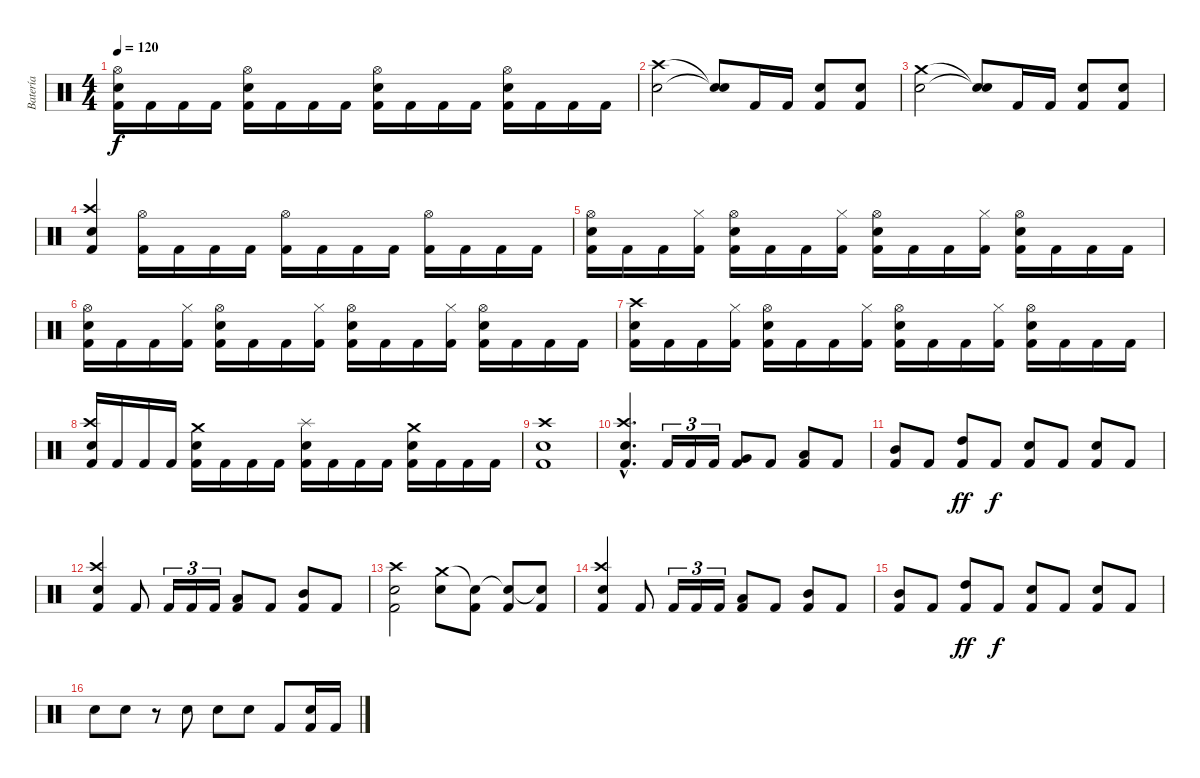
\track ("Batería" "Batería") {instrument percussion}
\staff {score}
\articulation defaults
\ts (4 4)
\tempo 120
\clef neutral
\ks c
("Hi-Hat (open)" "Electric Snare (hit)" "Kick (hit) 2").16{dy f} "Kick (hit) 2".16 "Kick (hit) 2".16 "Kick (hit) 2".16 ("Hi-Hat (open)" "Electric Snare (hit)" "Kick (hit) 2").16 "Kick (hit) 2".16 "Kick (hit) 2".16 "Kick (hit) 2".16 ("Hi-Hat (open)" "Electric Snare (hit)" "Kick (hit) 2").16 "Kick (hit) 2".16 "Kick (hit) 2".16 "Kick (hit) 2".16 ("Hi-Hat (open)" "Electric Snare (hit)" "Kick (hit) 2").16 "Kick (hit) 2".16 "Kick (hit) 2".16 "Kick (hit) 2".16 |
("Crash high (hit)" "Snare (hit) 2").2 ("Snare (hit)"{t} "Snare (hit)"{t}).8 "Kick (hit) 2".16 "Kick (hit) 2".16 ("Electric Snare (hit)" "Kick (hit) 2").8 ("Snare (hit) 2" "Kick (hit) 2").8 |
("Crash medium (hit)" "Snare (hit) 2").2 ("Snare (hit)"{t} "Snare (hit)"{t}).8 "Kick (hit) 2".16 "Kick (hit) 2".16 ("Electric Snare (hit)" "Kick (hit) 2").8 ("Snare (hit) 2" "Kick (hit) 2").8 |
("Crash high (hit)" "Snare (hit) 2" "Kick (hit) 2").4 ("Hi-Hat (open)" "Kick (hit) 2").16 "Kick (hit) 2".16 "Kick (hit) 2".16 "Kick (hit) 2".16 ("Hi-Hat (open)" "Kick (hit) 2").16 "Kick (hit) 2".16 "Kick (hit) 2".16 "Kick (hit) 2".16 ("Hi-Hat (open)" "Kick (hit) 2").16 "Kick (hit) 2".16 "Kick (hit) 2".16 "Kick (hit) 2".16 |
("Hi-Hat (open)" "Electric Snare (hit)" "Kick (hit) 2").16 "Kick (hit) 2".16 "Kick (hit) 2".16 ("Hi-Hat (closed)" "Kick (hit) 2").16 ("Hi-Hat (open)" "Electric Snare (hit)" "Kick (hit) 2").16 "Kick (hit) 2".16 "Kick (hit) 2".16 ("Hi-Hat (closed)" "Kick (hit) 2").16 ("Hi-Hat (open)" "Electric Snare (hit)" "Kick (hit) 2").16 "Kick (hit) 2".16 "Kick (hit) 2".16 ("Hi-Hat (closed)" "Kick (hit) 2").16 ("Hi-Hat (open)" "Electric Snare (hit)" "Kick (hit) 2").16 "Kick (hit) 2".16 "Kick (hit) 2".16 "Kick (hit) 2".16 |
("Hi-Hat (open)" "Electric Snare (hit)" "Kick (hit) 2").16 "Kick (hit) 2".16 "Kick (hit) 2".16 ("Hi-Hat (closed)" "Kick (hit) 2").16 ("Hi-Hat (open)" "Electric Snare (hit)" "Kick (hit) 2").16 "Kick (hit) 2".16 "Kick (hit) 2".16 ("Hi-Hat (closed)" "Kick (hit) 2").16 ("Hi-Hat (open)" "Electric Snare (hit)" "Kick (hit) 2").16 "Kick (hit) 2".16 "Kick (hit) 2".16 ("Hi-Hat (closed)" "Kick (hit) 2").16 ("Hi-Hat (open)" "Electric Snare (hit)" "Kick (hit) 2").16 "Kick (hit) 2".16 "Kick (hit) 2".16 "Kick (hit) 2".16 |
("Crash high (hit)" "Electric Snare (hit)" "Kick (hit) 2").16 "Kick (hit) 2".16 "Kick (hit) 2".16 ("Hi-Hat (closed)" "Kick (hit) 2").16 ("Hi-Hat (open)" "Electric Snare (hit)" "Kick (hit) 2").16 "Kick (hit) 2".16 "Kick (hit) 2".16 ("Hi-Hat (closed)" "Kick (hit) 2").16 ("Hi-Hat (open)" "Electric Snare (hit)" "Kick (hit) 2").16 "Kick (hit) 2".16 "Kick (hit) 2".16 ("Hi-Hat (closed)" "Kick (hit) 2").16 ("Hi-Hat (open)" "Electric Snare (hit)" "Kick (hit) 2").16 "Kick (hit) 2".16 "Kick (hit) 2".16 "Kick (hit) 2".16 |
("Crash high (hit)" "Snare (hit) 2" "Kick (hit) 2").16 "Kick (hit) 2".16 "Kick (hit) 2".16 "Kick (hit) 2".16 ("Crash medium (hit)" "Snare (hit) 2" "Kick (hit) 2").16 "Kick (hit) 2".16 "Kick (hit) 2".16 "Kick (hit) 2".16 ("Splash (hit)" "Snare (hit) 2" "Kick (hit) 2").16 "Kick (hit) 2".16 "Kick (hit) 2".16 "Kick (hit) 2".16 ("Crash medium (hit)" "Snare (hit) 2" "Kick (hit) 2").16 "Kick (hit) 2".16 "Kick (hit) 2".16 "Kick (hit) 2".16 |
("Crash high (hit)" "Snare (hit) 2" "Kick (hit) 2").1 |
("Crash high (hit)"{hac} "Snare (hit) 2"{hac} "Kick (hit) 2"{hac}).4{d} "Kick (hit) 2".16{tu (3 2)} "Kick (hit) 2".16{tu (3 2)} "Kick (hit) 2".16{tu (3 2)} ("Very Low Tom (hit)" "Kick (hit) 2").8 "Kick (hit) 2".8 ("Low Tom (hit)" "Kick (hit) 2").8 "Kick (hit) 2".8 |
("Mid Tom (hit)" "Kick (hit) 2").8 "Kick (hit) 2".8 ("High Tom (hit)" "Kick (hit) 2").8{dy ff} "Kick (hit) 2".8{dy f} ("Electric Snare (hit)" "Kick (hit) 2").8 "Kick (hit) 2".8 ("Snare (hit) 2" "Kick (hit) 2").8 "Kick (hit) 2".8 |
("Crash high (hit)" "Snare (hit) 2" "Kick (hit) 2").4 "Kick (hit) 2".8 "Kick (hit) 2".16{tu (3 2)} "Kick (hit) 2".16{tu (3 2)} "Kick (hit) 2".16{tu (3 2)} ("Low Tom (hit)" "Kick (hit) 2").8 "Kick (hit) 2".8 ("Mid Tom (hit)" "Kick (hit) 2").8 "Kick (hit) 2".8 |
("Crash high (hit)" "Electric Snare (hit)" "Kick (hit) 2").2 ("Crash medium (hit)" "Snare (hit) 2").8 ("Snare (hit)"{t} "Kick (hit) 2").8 ("Snare (hit)"{t} "Kick (hit) 2").8 ("Snare (hit)"{t} "Kick (hit) 2").8 |
("Crash high (hit)" "Snare (hit) 2" "Kick (hit) 2").4 "Kick (hit) 2".8 "Kick (hit) 2".16{tu (3 2)} "Kick (hit) 2".16{tu (3 2)} "Kick (hit) 2".16{tu (3 2)} ("Low Tom (hit)" "Kick (hit) 2").8 "Kick (hit) 2".8 ("Mid Tom (hit)" "Kick (hit) 2").8 "Kick (hit) 2".8 |
("Mid Tom (hit)" "Kick (hit) 2").8 "Kick (hit) 2".8 ("High Tom (hit)" "Kick (hit) 2").8{dy ff} "Kick (hit) 2".8{dy f} ("Electric Snare (hit)" "Kick (hit) 2").8 "Kick (hit) 2".8 ("Snare (hit) 2" "Kick (hit) 2").8 "Kick (hit) 2".8 |
"Electric Snare (hit)".8 "Snare (hit) 2".8 r.8 "Electric Snare (hit)".8 "Snare (hit) 2".8 "Snare (hit) 2".8 "Kick (hit) 2".8 ("Electric Snare (hit)" "Kick (hit) 2").16 "Kick (hit) 2".16
